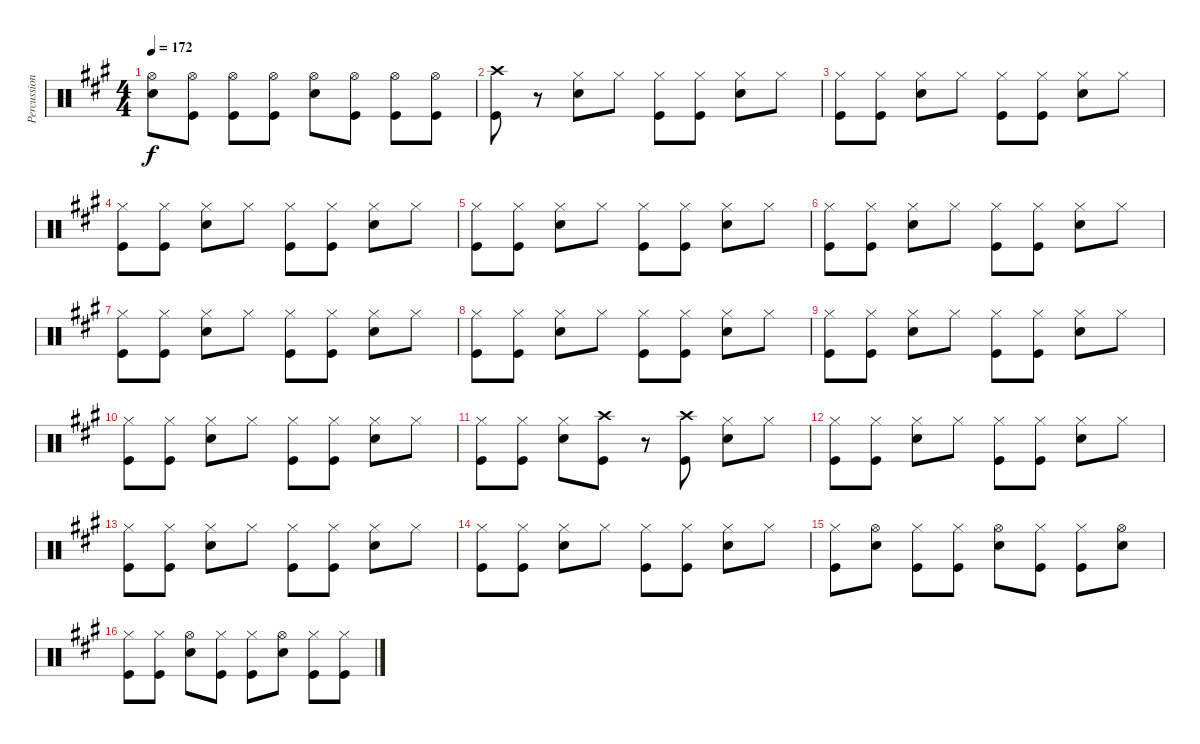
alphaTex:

\track ("Percussion" "Percussion") {instrument percussion}
\staff {score}
\articulation defaults
\ts (4 4)
\tempo 172
\clef neutral
\ks a
("Hi-Hat (open)" "Snare (hit) 2").8{dy f} ("Hi-Hat (open)" "Kick (hit)").8 ("Hi-Hat (open)" "Kick (hit)").8 ("Hi-Hat (open)" "Kick (hit)").8 ("Hi-Hat (open)" "Snare (hit) 2").8 ("Hi-Hat (open)" "Kick (hit)").8 ("Hi-Hat (open)" "Kick (hit)").8 ("Hi-Hat (open)" "Kick (hit)").8 |
("Crash high (hit)" "Kick (hit)").8 r.8 ("Hi-Hat (closed)" "Snare (hit) 2").8 "Hi-Hat (closed)".8 ("Hi-Hat (closed)" "Kick (hit)").8 ("Hi-Hat (closed)" "Kick (hit)").8 ("Hi-Hat (closed)" "Snare (hit) 2").8 "Hi-Hat (closed)".8 |
("Hi-Hat (closed)" "Kick (hit)").8 ("Hi-Hat (closed)" "Kick (hit)").8 ("Hi-Hat (closed)" "Snare (hit) 2").8 "Hi-Hat (closed)".8 ("Hi-Hat (closed)" "Kick (hit)").8 ("Hi-Hat (closed)" "Kick (hit)").8 ("Hi-Hat (closed)" "Snare (hit) 2").8 "Hi-Hat (closed)".8 |
("Hi-Hat (closed)" "Kick (hit)").8 ("Hi-Hat (closed)" "Kick (hit)").8 ("Hi-Hat (closed)" "Snare (hit) 2").8 "Hi-Hat (closed)".8 ("Hi-Hat (closed)" "Kick (hit)").8 ("Hi-Hat (closed)" "Kick (hit)").8 ("Hi-Hat (closed)" "Snare (hit) 2").8 "Hi-Hat (closed)".8 |
("Hi-Hat (closed)" "Kick (hit)").8 ("Hi-Hat (closed)" "Kick (hit)").8 ("Hi-Hat (closed)" "Snare (hit) 2").8 "Hi-Hat (closed)".8 ("Hi-Hat (closed)" "Kick (hit)").8 ("Hi-Hat (closed)" "Kick (hit)").8 ("Hi-Hat (closed)" "Snare (hit) 2").8 "Hi-Hat (closed)".8 |
("Hi-Hat (closed)" "Kick (hit)").8 ("Hi-Hat (closed)" "Kick (hit)").8 ("Hi-Hat (closed)" "Snare (hit) 2").8 "Hi-Hat (closed)".8 ("Hi-Hat (closed)" "Kick (hit)").8 ("Hi-Hat (closed)" "Kick (hit)").8 ("Hi-Hat (closed)" "Snare (hit) 2").8 "Hi-Hat (closed)".8 |
("Hi-Hat (closed)" "Kick (hit)").8 ("Hi-Hat (closed)" "Kick (hit)").8 ("Hi-Hat (closed)" "Snare (hit) 2").8 "Hi-Hat (closed)".8 ("Hi-Hat (closed)" "Kick (hit)").8 ("Hi-Hat (closed)" "Kick (hit)").8 ("Hi-Hat (closed)" "Snare (hit) 2").8 "Hi-Hat (closed)".8 |
("Hi-Hat (closed)" "Kick (hit)").8 ("Hi-Hat (closed)" "Kick (hit)").8 ("Hi-Hat (closed)" "Snare (hit) 2").8 "Hi-Hat (closed)".8 ("Hi-Hat (closed)" "Kick (hit)").8 ("Hi-Hat (closed)" "Kick (hit)").8 ("Hi-Hat (closed)" "Snare (hit) 2").8 "Hi-Hat (closed)".8 |
("Hi-Hat (closed)" "Kick (hit)").8 ("Hi-Hat (closed)" "Kick (hit)").8 ("Hi-Hat (closed)" "Snare (hit) 2").8 "Hi-Hat (closed)".8 ("Hi-Hat (closed)" "Kick (hit)").8 ("Hi-Hat (closed)" "Kick (hit)").8 ("Hi-Hat (closed)" "Snare (hit) 2").8 "Hi-Hat (closed)".8 |
("Hi-Hat (closed)" "Kick (hit)").8 ("Hi-Hat (closed)" "Kick (hit)").8 ("Hi-Hat (closed)" "Snare (hit) 2").8 "Hi-Hat (closed)".8 ("Hi-Hat (closed)" "Kick (hit)").8 ("Hi-Hat (closed)" "Kick (hit)").8 ("Hi-Hat (closed)" "Snare (hit) 2").8 "Hi-Hat (closed)".8 |
("Hi-Hat (closed)" "Kick (hit)").8 ("Hi-Hat (closed)" "Kick (hit)").8 ("Hi-Hat (closed)" "Snare (hit) 2").8 ("Crash high (hit)" "Kick (hit)").8 r.8 ("Crash high (hit)" "Kick (hit)").8 ("Hi-Hat (closed)" "Snare (hit) 2").8 "Hi-Hat (closed)".8 |
("Hi-Hat (closed)" "Kick (hit)").8 ("Hi-Hat (closed)" "Kick (hit)").8 ("Hi-Hat (closed)" "Snare (hit) 2").8 "Hi-Hat (closed)".8 ("Hi-Hat (closed)" "Kick (hit)").8 ("Hi-Hat (closed)" "Kick (hit)").8 ("Hi-Hat (closed)" "Snare (hit) 2").8 "Hi-Hat (closed)".8 |
("Hi-Hat (closed)" "Kick (hit)").8 ("Hi-Hat (closed)" "Kick (hit)").8 ("Hi-Hat (closed)" "Snare (hit) 2").8 "Hi-Hat (closed)".8 ("Hi-Hat (closed)" "Kick (hit)").8 ("Hi-Hat (closed)" "Kick (hit)").8 ("Hi-Hat (closed)" "Snare (hit) 2").8 "Hi-Hat (closed)".8 |
("Hi-Hat (closed)" "Kick (hit)").8 ("Hi-Hat (closed)" "Kick (hit)").8 ("Hi-Hat (closed)" "Snare (hit) 2").8 "Hi-Hat (closed)".8 ("Hi-Hat (closed)" "Kick (hit)").8 ("Hi-Hat (closed)" "Kick (hit)").8 ("Hi-Hat (closed)" "Snare (hit) 2").8 "Hi-Hat (closed)".8 |
("Hi-Hat (closed)" "Kick (hit)").8 ("Hi-Hat (open)" "Snare (hit) 2").8 ("Hi-Hat (closed)" "Kick (hit)").8 ("Hi-Hat (closed)" "Kick (hit)").8 ("Hi-Hat (open)" "Snare (hit) 2").8 ("Hi-Hat (closed)" "Kick (hit)").8 ("Hi-Hat (closed)" "Kick (hit)").8 ("Hi-Hat (open)" "Snare (hit) 2").8 |
("Hi-Hat (closed)" "Kick (hit)").8 ("Hi-Hat (closed)" "Kick (hit)").8 ("Hi-Hat (open)" "Snare (hit) 2").8 ("Hi-Hat (closed)" "Kick (hit)").8 ("Hi-Hat (closed)" "Kick (hit)").8 ("Hi-Hat (open)" "Snare (hit) 2").8 ("Hi-Hat (closed)" "Kick (hit)").8 ("Hi-Hat (closed)" "Kick (hit)").8
